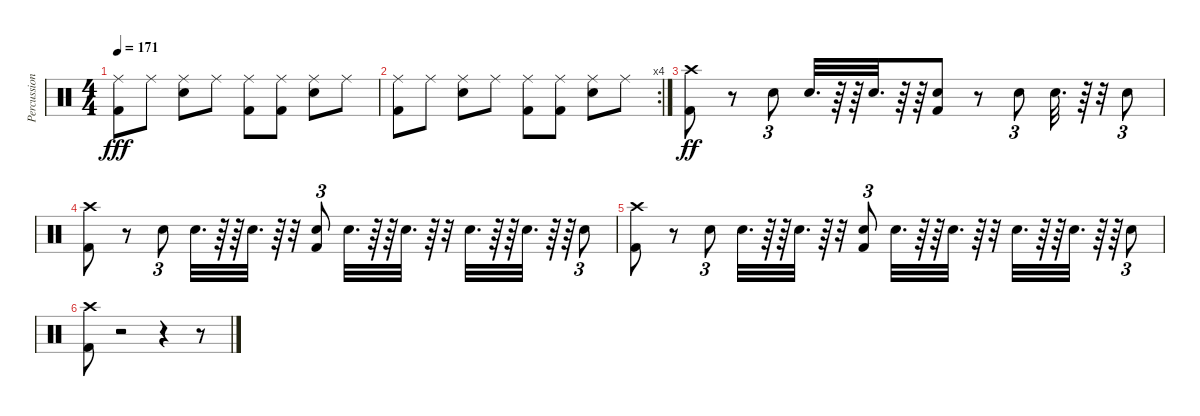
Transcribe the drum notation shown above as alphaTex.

\track ("Percussion" "Percussion") {instrument percussion}
\staff {score}
\articulation defaults
\ts (4 4)
\tempo 171
\clef neutral
\ks c
("Kick (hit) 2" "Ride (middle)").8{dy fff} "Ride (middle)".8 ("Snare (hit) 2" "Ride (middle)").8 "Ride (middle)".8 ("Kick (hit) 2" "Ride (middle)").8 ("Kick (hit) 2" "Ride (middle)").8 ("Snare (hit) 2" "Ride (middle)").8 "Ride (middle)".8 |
\rc 4
("Kick (hit) 2" "Ride (middle)").8 "Ride (middle)".8 ("Snare (hit) 2" "Ride (middle)").8 "Ride (middle)".8 ("Kick (hit) 2" "Ride (middle)").8 ("Kick (hit) 2" "Ride (middle)").8 ("Snare (hit) 2" "Ride (middle)").8 "Ride (middle)".8 |
("Crash high (hit)" "Kick (hit) 2").8{dy ff} r.8 "Snare (hit) 2".8{tu (3 2)} "Snare (hit) 2".32{d} r.64 r.64 "Snare (hit) 2".32{d} r.64 r.64 ("Kick (hit) 2" "Snare (hit) 2").8 r.8 "Snare (hit) 2".8{tu (3 2)} "Snare (hit) 2".32{d} r.64 r.32 "Snare (hit) 2".8{tu (3 2)} |
("Crash high (hit)" "Kick (hit) 2").8 r.8 "Snare (hit) 2".8{tu (3 2)} "Snare (hit) 2".32{d} r.64 r.64 "Snare (hit) 2".32{d} r.64 r.32 ("Kick (hit) 2" "Snare (hit) 2").8{tu (3 2)} "Snare (hit) 2".32{d} r.64 r.64 "Snare (hit) 2".32{d} r.64 r.32 "Snare (hit) 2".32{d} r.64 r.64 "Snare (hit) 2".32{d} r.64 r.64 "Snare (hit) 2".8{tu (3 2)} |
("Crash high (hit)" "Kick (hit) 2").8 r.8 "Snare (hit) 2".8{tu (3 2)} "Snare (hit) 2".32{d} r.64 r.64 "Snare (hit) 2".32{d} r.64 r.32 ("Kick (hit) 2" "Snare (hit) 2").8{tu (3 2)} "Snare (hit) 2".32{d} r.64 r.64 "Snare (hit) 2".32{d} r.64 r.32 "Snare (hit) 2".32{d} r.64 r.64 "Snare (hit) 2".32{d} r.64 r.64 "Snare (hit) 2".8{tu (3 2)} |
("Crash high (hit)" "Kick (hit) 2").8 r.2 r.4 r.8
